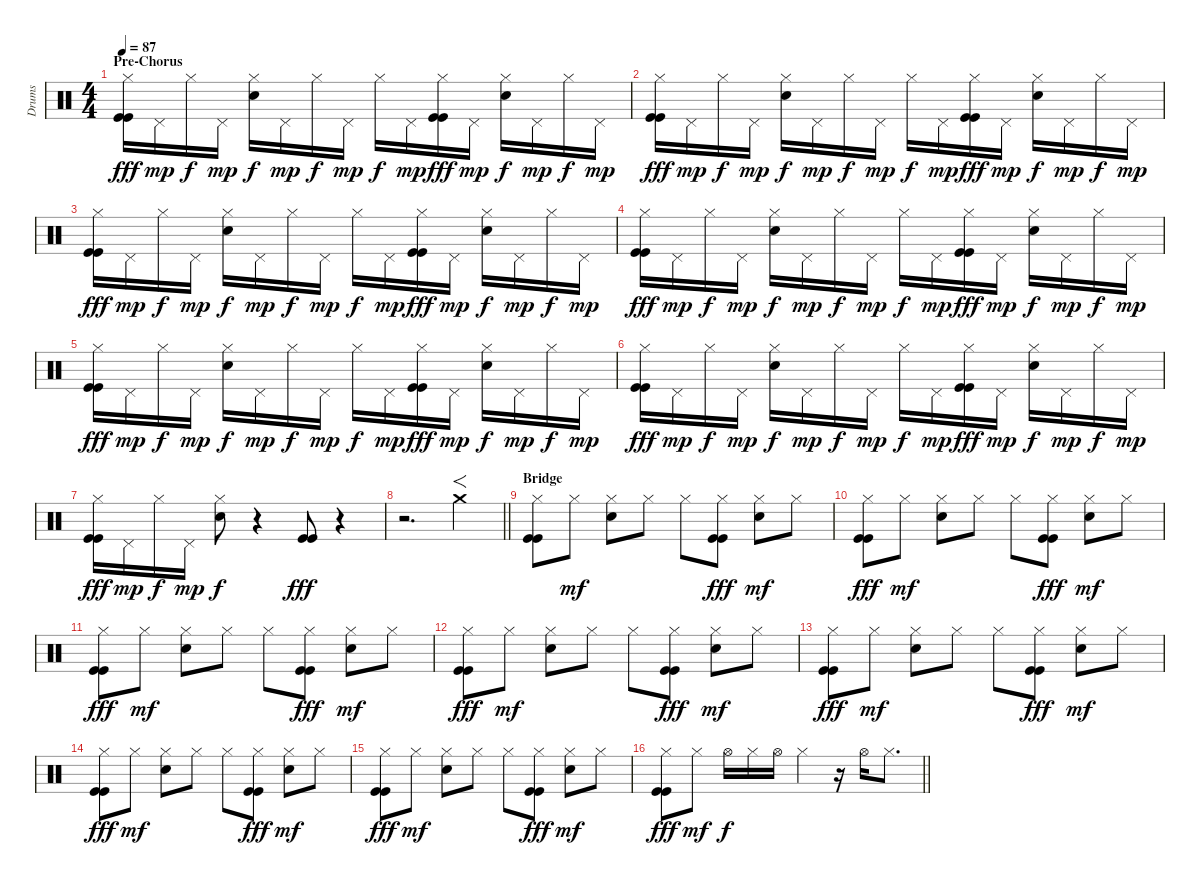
\track ("Drums" "Drums") {instrument percussion}
\staff {score}
\articulation defaults
\ts (4 4)
\section ("" "Pre-Chorus")
\tempo 87
\clef neutral
\ks c
("Hi-Hat (closed)" "Kick (hit)" "Kick (hit)").16{dy fff} "Pedal Hi-Hat (hit)".16{dy mp} "Hi-Hat (closed)".16{dy f} "Pedal Hi-Hat (hit)".16{dy mp} ("Hi-Hat (closed)" "Electric Snare (hit)").16{dy f} "Pedal Hi-Hat (hit)".16{dy mp} "Hi-Hat (closed)".16{dy f} "Pedal Hi-Hat (hit)".16{dy mp} "Hi-Hat (closed)".16{dy f} "Pedal Hi-Hat (hit)".16{dy mp} ("Hi-Hat (closed)" "Kick (hit)" "Kick (hit)").16{dy fff} "Pedal Hi-Hat (hit)".16{dy mp} ("Hi-Hat (closed)" "Electric Snare (hit)").16{dy f} "Pedal Hi-Hat (hit)".16{dy mp} "Hi-Hat (closed)".16{dy f} "Pedal Hi-Hat (hit)".16{dy mp} |
("Hi-Hat (closed)" "Kick (hit)" "Kick (hit)").16{dy fff} "Pedal Hi-Hat (hit)".16{dy mp} "Hi-Hat (closed)".16{dy f} "Pedal Hi-Hat (hit)".16{dy mp} ("Hi-Hat (closed)" "Electric Snare (hit)").16{dy f} "Pedal Hi-Hat (hit)".16{dy mp} "Hi-Hat (closed)".16{dy f} "Pedal Hi-Hat (hit)".16{dy mp} "Hi-Hat (closed)".16{dy f} "Pedal Hi-Hat (hit)".16{dy mp} ("Hi-Hat (closed)" "Kick (hit)" "Kick (hit)").16{dy fff} "Pedal Hi-Hat (hit)".16{dy mp} ("Hi-Hat (closed)" "Electric Snare (hit)").16{dy f} "Pedal Hi-Hat (hit)".16{dy mp} "Hi-Hat (closed)".16{dy f} "Pedal Hi-Hat (hit)".16{dy mp} |
("Hi-Hat (closed)" "Kick (hit)" "Kick (hit)").16{dy fff} "Pedal Hi-Hat (hit)".16{dy mp} "Hi-Hat (closed)".16{dy f} "Pedal Hi-Hat (hit)".16{dy mp} ("Hi-Hat (closed)" "Electric Snare (hit)").16{dy f} "Pedal Hi-Hat (hit)".16{dy mp} "Hi-Hat (closed)".16{dy f} "Pedal Hi-Hat (hit)".16{dy mp} "Hi-Hat (closed)".16{dy f} "Pedal Hi-Hat (hit)".16{dy mp} ("Hi-Hat (closed)" "Kick (hit)" "Kick (hit)").16{dy fff} "Pedal Hi-Hat (hit)".16{dy mp} ("Hi-Hat (closed)" "Electric Snare (hit)").16{dy f} "Pedal Hi-Hat (hit)".16{dy mp} "Hi-Hat (closed)".16{dy f} "Pedal Hi-Hat (hit)".16{dy mp} |
("Hi-Hat (closed)" "Kick (hit)" "Kick (hit)").16{dy fff} "Pedal Hi-Hat (hit)".16{dy mp} "Hi-Hat (closed)".16{dy f} "Pedal Hi-Hat (hit)".16{dy mp} ("Hi-Hat (closed)" "Electric Snare (hit)").16{dy f} "Pedal Hi-Hat (hit)".16{dy mp} "Hi-Hat (closed)".16{dy f} "Pedal Hi-Hat (hit)".16{dy mp} "Hi-Hat (closed)".16{dy f} "Pedal Hi-Hat (hit)".16{dy mp} ("Hi-Hat (closed)" "Kick (hit)" "Kick (hit)").16{dy fff} "Pedal Hi-Hat (hit)".16{dy mp} ("Hi-Hat (closed)" "Electric Snare (hit)").16{dy f} "Pedal Hi-Hat (hit)".16{dy mp} "Hi-Hat (closed)".16{dy f} "Pedal Hi-Hat (hit)".16{dy mp} |
("Hi-Hat (closed)" "Kick (hit)" "Kick (hit)").16{dy fff} "Pedal Hi-Hat (hit)".16{dy mp} "Hi-Hat (closed)".16{dy f} "Pedal Hi-Hat (hit)".16{dy mp} ("Hi-Hat (closed)" "Electric Snare (hit)").16{dy f} "Pedal Hi-Hat (hit)".16{dy mp} "Hi-Hat (closed)".16{dy f} "Pedal Hi-Hat (hit)".16{dy mp} "Hi-Hat (closed)".16{dy f} "Pedal Hi-Hat (hit)".16{dy mp} ("Hi-Hat (closed)" "Kick (hit)" "Kick (hit)").16{dy fff} "Pedal Hi-Hat (hit)".16{dy mp} ("Hi-Hat (closed)" "Electric Snare (hit)").16{dy f} "Pedal Hi-Hat (hit)".16{dy mp} "Hi-Hat (closed)".16{dy f} "Pedal Hi-Hat (hit)".16{dy mp} |
("Hi-Hat (closed)" "Kick (hit)" "Kick (hit)").16{dy fff} "Pedal Hi-Hat (hit)".16{dy mp} "Hi-Hat (closed)".16{dy f} "Pedal Hi-Hat (hit)".16{dy mp} ("Hi-Hat (closed)" "Electric Snare (hit)").16{dy f} "Pedal Hi-Hat (hit)".16{dy mp} "Hi-Hat (closed)".16{dy f} "Pedal Hi-Hat (hit)".16{dy mp} "Hi-Hat (closed)".16{dy f} "Pedal Hi-Hat (hit)".16{dy mp} ("Hi-Hat (closed)" "Kick (hit)" "Kick (hit)").16{dy fff} "Pedal Hi-Hat (hit)".16{dy mp} ("Hi-Hat (closed)" "Electric Snare (hit)").16{dy f} "Pedal Hi-Hat (hit)".16{dy mp} "Hi-Hat (closed)".16{dy f} "Pedal Hi-Hat (hit)".16{dy mp} |
("Hi-Hat (closed)" "Kick (hit)" "Kick (hit)").16{dy fff} "Pedal Hi-Hat (hit)".16{dy mp} "Hi-Hat (closed)".16{dy f} "Pedal Hi-Hat (hit)".16{dy mp} ("Hi-Hat (closed)" "Electric Snare (hit)").8{dy f} r.4 ("Kick (hit)" "Kick (hit)").8{dy fff} r.4 |
\barLineRight lightlight
r.2{d} "Crash medium (hit)".4{f} |
\section ("" "Bridge")
("Hi-Hat (closed)" "Kick (hit)" "Kick (hit)").8 "Hi-Hat (closed)".8{dy mf} ("Hi-Hat (closed)" "Electric Snare (hit)").8 "Hi-Hat (closed)".8 "Hi-Hat (closed)".8 ("Hi-Hat (closed)" "Kick (hit)" "Kick (hit)").8{dy fff} ("Hi-Hat (closed)" "Electric Snare (hit)").8{dy mf} "Hi-Hat (closed)".8 |
("Hi-Hat (closed)" "Kick (hit)" "Kick (hit)").8{dy fff} "Hi-Hat (closed)".8{dy mf} ("Hi-Hat (closed)" "Electric Snare (hit)").8 "Hi-Hat (closed)".8 "Hi-Hat (closed)".8 ("Hi-Hat (closed)" "Kick (hit)" "Kick (hit)").8{dy fff} ("Hi-Hat (closed)" "Electric Snare (hit)").8{dy mf} "Hi-Hat (closed)".8 |
("Hi-Hat (closed)" "Kick (hit)" "Kick (hit)").8{dy fff} "Hi-Hat (closed)".8{dy mf} ("Hi-Hat (closed)" "Electric Snare (hit)").8 "Hi-Hat (closed)".8 "Hi-Hat (closed)".8 ("Hi-Hat (closed)" "Kick (hit)" "Kick (hit)").8{dy fff} ("Hi-Hat (closed)" "Electric Snare (hit)").8{dy mf} "Hi-Hat (closed)".8 |
("Hi-Hat (closed)" "Kick (hit)" "Kick (hit)").8{dy fff} "Hi-Hat (closed)".8{dy mf} ("Hi-Hat (closed)" "Electric Snare (hit)").8 "Hi-Hat (closed)".8 "Hi-Hat (closed)".8 ("Hi-Hat (closed)" "Kick (hit)" "Kick (hit)").8{dy fff} ("Hi-Hat (closed)" "Electric Snare (hit)").8{dy mf} "Hi-Hat (closed)".8 |
("Hi-Hat (closed)" "Kick (hit)" "Kick (hit)").8{dy fff} "Hi-Hat (closed)".8{dy mf} ("Hi-Hat (closed)" "Electric Snare (hit)").8 "Hi-Hat (closed)".8 "Hi-Hat (closed)".8 ("Hi-Hat (closed)" "Kick (hit)" "Kick (hit)").8{dy fff} ("Hi-Hat (closed)" "Electric Snare (hit)").8{dy mf} "Hi-Hat (closed)".8 |
("Hi-Hat (closed)" "Kick (hit)" "Kick (hit)").8{dy fff} "Hi-Hat (closed)".8{dy mf} ("Hi-Hat (closed)" "Electric Snare (hit)").8 "Hi-Hat (closed)".8 "Hi-Hat (closed)".8 ("Hi-Hat (closed)" "Kick (hit)" "Kick (hit)").8{dy fff} ("Hi-Hat (closed)" "Electric Snare (hit)").8{dy mf} "Hi-Hat (closed)".8 |
("Hi-Hat (closed)" "Kick (hit)" "Kick (hit)").8{dy fff} "Hi-Hat (closed)".8{dy mf} ("Hi-Hat (closed)" "Electric Snare (hit)").8 "Hi-Hat (closed)".8 "Hi-Hat (closed)".8 ("Hi-Hat (closed)" "Kick (hit)" "Kick (hit)").8{dy fff} ("Hi-Hat (closed)" "Electric Snare (hit)").8{dy mf} "Hi-Hat (closed)".8 |
\barLineRight lightlight
("Hi-Hat (closed)" "Kick (hit)" "Kick (hit)").8{dy fff} "Hi-Hat (closed)".8{dy mf} "Hi-Hat (open)".16{dy f} "Hi-Hat (closed)".16 "Hi-Hat (open)".16 "Hi-Hat (closed)".4 r.16 "Hi-Hat (open)".16 "Hi-Hat (closed)".8{d}
